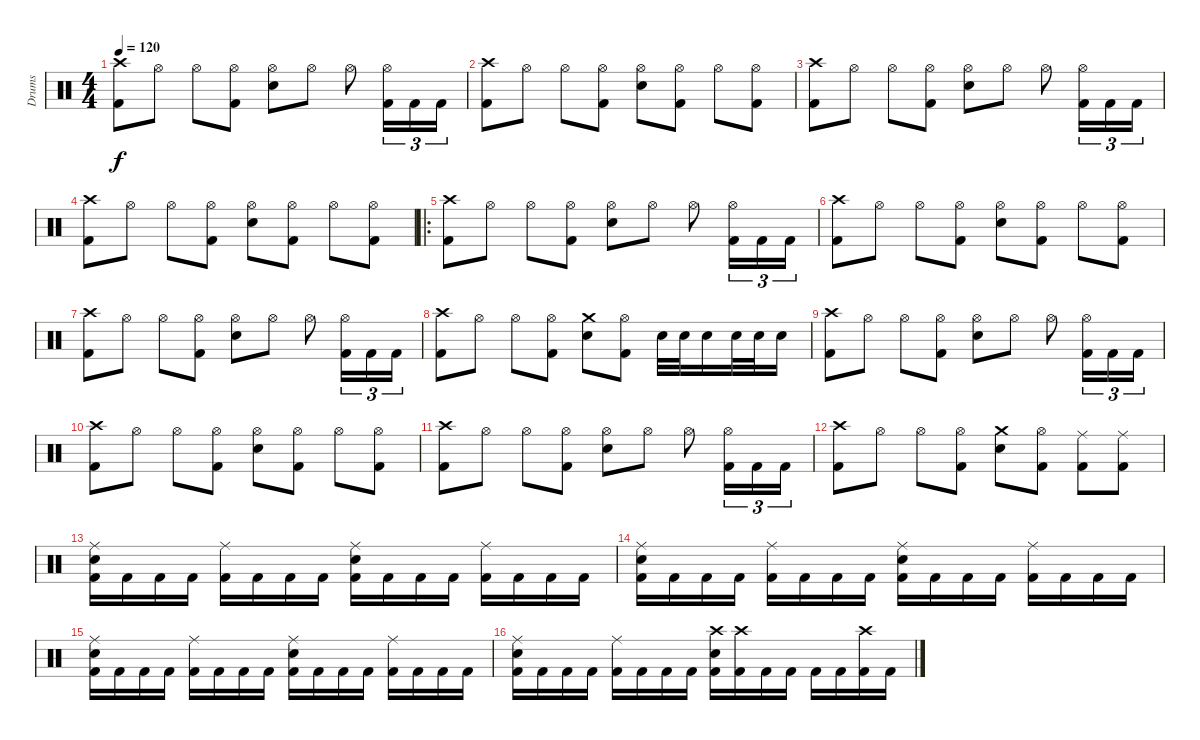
\track ("Drums" "Drums") {instrument percussion}
\staff {score}
\articulation defaults
\ts (4 4)
\tempo 120
\clef neutral
\ks c
("Crash high (hit)" "Kick (hit) 2").8{dy f} "Hi-Hat (open)".8 "Hi-Hat (open)".8 ("Hi-Hat (open)" "Kick (hit) 2").8 ("Hi-Hat (open)" "Electric Snare (hit)").8 "Hi-Hat (open)".8 "Hi-Hat (open)".8 ("Hi-Hat (open)" "Kick (hit) 2").16{tu (3 2)} "Kick (hit) 2".16{tu (3 2)} "Kick (hit) 2".16{tu (3 2)} |
("Crash high (hit)" "Kick (hit) 2").8 "Hi-Hat (open)".8 "Hi-Hat (open)".8 ("Hi-Hat (open)" "Kick (hit) 2").8 ("Hi-Hat (open)" "Electric Snare (hit)").8 ("Hi-Hat (open)" "Kick (hit) 2").8 "Hi-Hat (open)".8 ("Hi-Hat (open)" "Kick (hit) 2").8 |
("Crash high (hit)" "Kick (hit) 2").8 "Hi-Hat (open)".8 "Hi-Hat (open)".8 ("Hi-Hat (open)" "Kick (hit) 2").8 ("Hi-Hat (open)" "Electric Snare (hit)").8 "Hi-Hat (open)".8 "Hi-Hat (open)".8 ("Hi-Hat (open)" "Kick (hit) 2").16{tu (3 2)} "Kick (hit) 2".16{tu (3 2)} "Kick (hit) 2".16{tu (3 2)} |
("Crash high (hit)" "Kick (hit) 2").8 "Hi-Hat (open)".8 "Hi-Hat (open)".8 ("Hi-Hat (open)" "Kick (hit) 2").8 ("Hi-Hat (open)" "Electric Snare (hit)").8 ("Hi-Hat (open)" "Kick (hit) 2").8 "Hi-Hat (open)".8 ("Hi-Hat (open)" "Kick (hit) 2").8 |
\ro
("Crash high (hit)" "Kick (hit) 2").8 "Hi-Hat (open)".8 "Hi-Hat (open)".8 ("Hi-Hat (open)" "Kick (hit) 2").8 ("Hi-Hat (open)" "Electric Snare (hit)").8 "Hi-Hat (open)".8 "Hi-Hat (open)".8 ("Hi-Hat (open)" "Kick (hit) 2").16{tu (3 2)} "Kick (hit) 2".16{tu (3 2)} "Kick (hit) 2".16{tu (3 2)} |
("Crash high (hit)" "Kick (hit) 2").8 "Hi-Hat (open)".8 "Hi-Hat (open)".8 ("Hi-Hat (open)" "Kick (hit) 2").8 ("Hi-Hat (open)" "Electric Snare (hit)").8 ("Hi-Hat (open)" "Kick (hit) 2").8 "Hi-Hat (open)".8 ("Hi-Hat (open)" "Kick (hit) 2").8 |
("Crash high (hit)" "Kick (hit) 2").8 "Hi-Hat (open)".8 "Hi-Hat (open)".8 ("Hi-Hat (open)" "Kick (hit) 2").8 ("Hi-Hat (open)" "Electric Snare (hit)").8 "Hi-Hat (open)".8 "Hi-Hat (open)".8 ("Hi-Hat (open)" "Kick (hit) 2").16{tu (3 2)} "Kick (hit) 2".16{tu (3 2)} "Kick (hit) 2".16{tu (3 2)} |
("Crash high (hit)" "Kick (hit) 2").8 "Hi-Hat (open)".8 "Hi-Hat (open)".8 ("Hi-Hat (open)" "Kick (hit) 2").8 ("Crash medium (hit)" "Electric Snare (hit)").8 ("Hi-Hat (open)" "Kick (hit) 2").8 "Electric Snare (hit)".32 "Electric Snare (hit)".32 "Electric Snare (hit)".16 "Electric Snare (hit)".32 "Electric Snare (hit)".32 "Electric Snare (hit)".16 |
("Crash high (hit)" "Kick (hit) 2").8 "Hi-Hat (open)".8 "Hi-Hat (open)".8 ("Hi-Hat (open)" "Kick (hit) 2").8 ("Hi-Hat (open)" "Electric Snare (hit)").8 "Hi-Hat (open)".8 "Hi-Hat (open)".8 ("Hi-Hat (open)" "Kick (hit) 2").16{tu (3 2)} "Kick (hit) 2".16{tu (3 2)} "Kick (hit) 2".16{tu (3 2)} |
("Crash high (hit)" "Kick (hit) 2").8 "Hi-Hat (open)".8 "Hi-Hat (open)".8 ("Hi-Hat (open)" "Kick (hit) 2").8 ("Hi-Hat (open)" "Electric Snare (hit)").8 ("Hi-Hat (open)" "Kick (hit) 2").8 "Hi-Hat (open)".8 ("Hi-Hat (open)" "Kick (hit) 2").8 |
("Crash high (hit)" "Kick (hit) 2").8 "Hi-Hat (open)".8 "Hi-Hat (open)".8 ("Hi-Hat (open)" "Kick (hit) 2").8 ("Hi-Hat (open)" "Electric Snare (hit)").8 "Hi-Hat (open)".8 "Hi-Hat (open)".8 ("Hi-Hat (open)" "Kick (hit) 2").16{tu (3 2)} "Kick (hit) 2".16{tu (3 2)} "Kick (hit) 2".16{tu (3 2)} |
("Crash high (hit)" "Kick (hit) 2").8 "Hi-Hat (open)".8 "Hi-Hat (open)".8 ("Hi-Hat (open)" "Kick (hit) 2").8 ("Crash medium (hit)" "Electric Snare (hit)").8 ("Hi-Hat (open)" "Kick (hit) 2").8 ("Ride (middle)" "Kick (hit) 2").8 ("Ride (middle)" "Kick (hit) 2").8 |
("Ride (middle)" "Electric Snare (hit)" "Kick (hit) 2").16 "Kick (hit) 2".16 "Kick (hit) 2".16 "Kick (hit) 2".16 ("Ride (middle)" "Kick (hit) 2").16 "Kick (hit) 2".16 "Kick (hit) 2".16 "Kick (hit) 2".16 ("Ride (middle)" "Electric Snare (hit)" "Kick (hit) 2").16 "Kick (hit) 2".16 "Kick (hit) 2".16 "Kick (hit) 2".16 ("Ride (middle)" "Kick (hit) 2").16 "Kick (hit) 2".16 "Kick (hit) 2".16 "Kick (hit) 2".16 |
("Ride (middle)" "Electric Snare (hit)" "Kick (hit) 2").16 "Kick (hit) 2".16 "Kick (hit) 2".16 "Kick (hit) 2".16 ("Ride (middle)" "Kick (hit) 2").16 "Kick (hit) 2".16 "Kick (hit) 2".16 "Kick (hit) 2".16 ("Ride (middle)" "Electric Snare (hit)" "Kick (hit) 2").16 "Kick (hit) 2".16 "Kick (hit) 2".16 "Kick (hit) 2".16 ("Ride (middle)" "Kick (hit) 2").16 "Kick (hit) 2".16 "Kick (hit) 2".16 "Kick (hit) 2".16 |
("Ride (middle)" "Electric Snare (hit)" "Kick (hit) 2").16 "Kick (hit) 2".16 "Kick (hit) 2".16 "Kick (hit) 2".16 ("Ride (middle)" "Kick (hit) 2").16 "Kick (hit) 2".16 "Kick (hit) 2".16 "Kick (hit) 2".16 ("Ride (middle)" "Electric Snare (hit)" "Kick (hit) 2").16 "Kick (hit) 2".16 "Kick (hit) 2".16 "Kick (hit) 2".16 ("Ride (middle)" "Kick (hit) 2").16 "Kick (hit) 2".16 "Kick (hit) 2".16 "Kick (hit) 2".16 |
("Ride (middle)" "Electric Snare (hit)" "Kick (hit) 2").16 "Kick (hit) 2".16 "Kick (hit) 2".16 "Kick (hit) 2".16 ("Ride (middle)" "Kick (hit) 2").16 "Kick (hit) 2".16 "Kick (hit) 2".16 "Kick (hit) 2".16 ("Crash high (hit)" "Electric Snare (hit)" "Kick (hit) 2").16 ("Crash high (hit)" "Kick (hit) 2").16 "Kick (hit) 2".16 "Kick (hit) 2".16 "Kick (hit) 2".16 "Kick (hit) 2".16 ("Crash high (hit)" "Kick (hit) 2").16 "Kick (hit) 2".16
